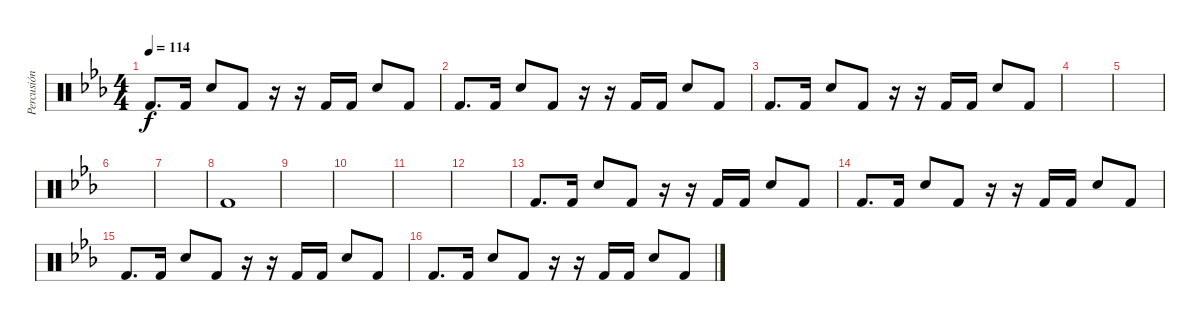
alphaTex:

\track ("Percusión" "Percusión") {instrument percussion}
\staff {score}
\articulation defaults
\ts (4 4)
\tempo 114
\clef neutral
\ks eb "Kick (hit) 2".8{d dy f} "Kick (hit) 2".16 "Electric Snare (hit)".8 "Kick (hit) 2".8
r.16 r.16 "Kick (hit) 2".16 "Kick (hit) 2".16 "Electric Snare (hit)".8 "Kick (hit) 2".8 |
"Kick (hit) 2".8{d} "Kick (hit) 2".16 "Electric Snare (hit)".8 "Kick (hit) 2".8 r.16 r.16 "Kick (hit) 2".16 "Kick (hit) 2".16 "Electric Snare (hit)".8 "Kick (hit) 2".8 |
"Kick (hit) 2".8{d} "Kick (hit) 2".16 "Electric Snare (hit)".8 "Kick (hit) 2".8 r.16 r.16 "Kick (hit) 2".16 "Kick (hit) 2".16 "Electric Snare (hit)".8 "Kick (hit) 2".8 |
|
|
|
|
"Kick (hit) 2".1 |
|
|
|
|
"Kick (hit) 2".8{d} "Kick (hit) 2".16 "Electric Snare (hit)".8 "Kick (hit) 2".8 r.16 r.16 "Kick (hit) 2".16 "Kick (hit) 2".16 "Electric Snare (hit)".8 "Kick (hit) 2".8 |
"Kick (hit) 2".8{d} "Kick (hit) 2".16 "Electric Snare (hit)".8 "Kick (hit) 2".8 r.16 r.16 "Kick (hit) 2".16 "Kick (hit) 2".16 "Electric Snare (hit)".8 "Kick (hit) 2".8 |
"Kick (hit) 2".8{d} "Kick (hit) 2".16 "Electric Snare (hit)".8 "Kick (hit) 2".8 r.16 r.16 "Kick (hit) 2".16 "Kick (hit) 2".16 "Electric Snare (hit)".8 "Kick (hit) 2".8 |
"Kick (hit) 2".8{d} "Kick (hit) 2".16 "Electric Snare (hit)".8 "Kick (hit) 2".8 r.16 r.16 "Kick (hit) 2".16 "Kick (hit) 2".16 "Electric Snare (hit)".8 "Kick (hit) 2".8
